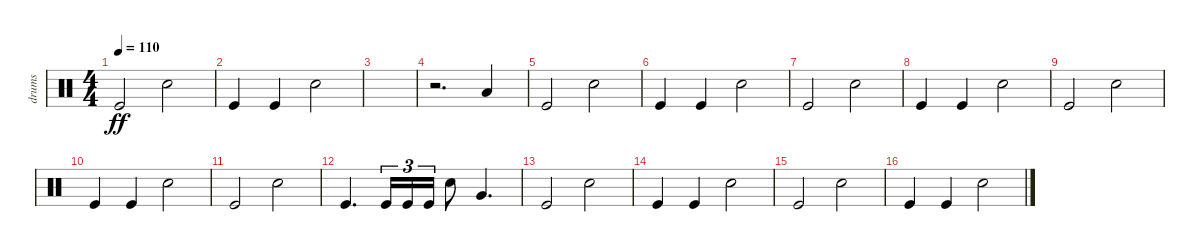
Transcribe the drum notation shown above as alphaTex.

\track ("drums" "drums") {instrument percussion}
\staff {score}
\articulation defaults
\ts (4 4)
\tempo 110
\clef neutral
\ks c "Kick (hit)".2{dy ff} "Electric Snare (hit)".2
|
"Kick (hit)".4 "Kick (hit)".4 "Electric Snare (hit)".2 |
|
r.2{d} "Low Floor Tom (hit)".4 |
"Kick (hit)".2 "Electric Snare (hit)".2 |
"Kick (hit)".4 "Kick (hit)".4 "Electric Snare (hit)".2 |
"Kick (hit)".2 "Electric Snare (hit)".2 |
"Kick (hit)".4 "Kick (hit)".4 "Electric Snare (hit)".2 |
"Kick (hit)".2 "Electric Snare (hit)".2 |
"Kick (hit)".4 "Kick (hit)".4 "Electric Snare (hit)".2 |
"Kick (hit)".2 "Electric Snare (hit)".2 |
"Kick (hit)".4{d} "Kick (hit)".16{tu (3 2)} "Kick (hit)".16{tu (3 2)} "Kick (hit)".16{tu (3 2)} "Electric Snare (hit)".8 "Very Low Tom (hit)".4{d} |
"Kick (hit)".2 "Electric Snare (hit)".2 |
"Kick (hit)".4 "Kick (hit)".4 "Electric Snare (hit)".2 |
"Kick (hit)".2 "Electric Snare (hit)".2 |
"Kick (hit)".4 "Kick (hit)".4 "Electric Snare (hit)".2
